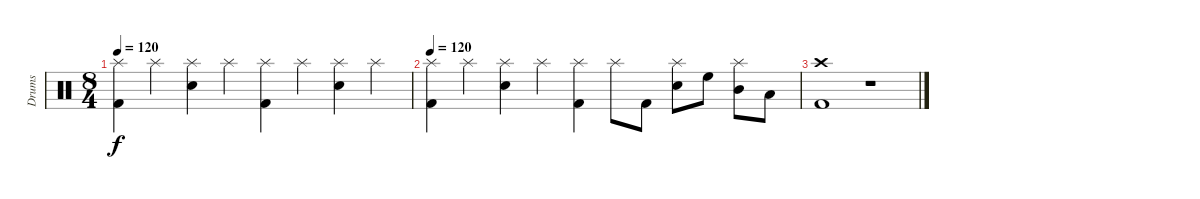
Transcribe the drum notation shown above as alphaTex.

\track ("Drums" "Drums") {instrument percussion}
\staff {score}
\articulation defaults
\ts (8 4)
\tempo 120
\clef neutral
\ks c
("Kick (hit) 2" "Splash (hit)").4{dy f} "Splash (hit)".4 ("Electric Snare (hit)" "Splash (hit)").4 "Splash (hit)".4 ("Kick (hit) 2" "Splash (hit)").4 "Splash (hit)".4 ("Electric Snare (hit)" "Splash (hit)").4 "Splash (hit)".4 |
\tempo 120
("Kick (hit) 2" "Splash (hit)").4 "Splash (hit)".4 ("Electric Snare (hit)" "Splash (hit)").4 "Splash (hit)".4 ("Kick (hit) 2" "Splash (hit)").4 "Splash (hit)".8 "Kick (hit) 2".8 ("Electric Snare (hit)" "Splash (hit)").8 "High Floor Tom (hit)".8 ("Mid Tom (hit)" "Splash (hit)").8 "Low Tom (hit)".8 |
("Kick (hit) 2" "Crash high (hit)").1 r.1
